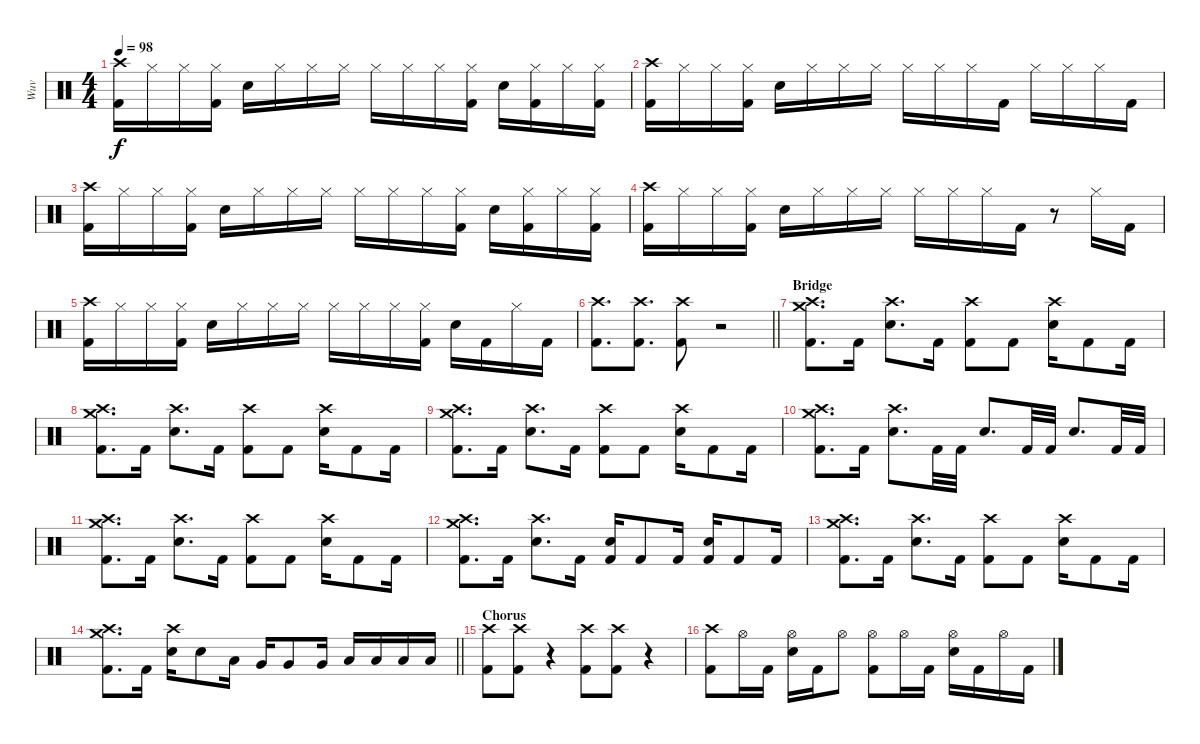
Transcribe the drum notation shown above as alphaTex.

\track ("Wuv" "Wuv") {instrument percussion}
\staff {score}
\articulation defaults
\ts (4 4)
\tempo 98
\clef neutral
\ks c
("Crash high (hit)" "Kick (hit) 2").16{dy f} "Hi-Hat (closed)".16 "Hi-Hat (closed)".16 ("Hi-Hat (closed)" "Kick (hit) 2").16 "Electric Snare (hit)".16 "Hi-Hat (closed)".16 "Hi-Hat (closed)".16 "Hi-Hat (closed)".16 "Hi-Hat (closed)".16 "Hi-Hat (closed)".16 "Hi-Hat (closed)".16 ("Hi-Hat (closed)" "Kick (hit) 2").16 "Electric Snare (hit)".16 ("Hi-Hat (closed)" "Kick (hit) 2").16 "Hi-Hat (closed)".16 ("Hi-Hat (closed)" "Kick (hit) 2").16 |
("Crash high (hit)" "Kick (hit) 2").16 "Hi-Hat (closed)".16 "Hi-Hat (closed)".16 ("Hi-Hat (closed)" "Kick (hit) 2").16 "Electric Snare (hit)".16 "Hi-Hat (closed)".16 "Hi-Hat (closed)".16 "Hi-Hat (closed)".16 "Hi-Hat (closed)".16 "Hi-Hat (closed)".16 "Hi-Hat (closed)".16 "Kick (hit) 2".16 "Hi-Hat (closed)".16 "Hi-Hat (closed)".16 "Hi-Hat (closed)".16 "Kick (hit) 2".16 |
("Crash high (hit)" "Kick (hit) 2").16 "Hi-Hat (closed)".16 "Hi-Hat (closed)".16 ("Hi-Hat (closed)" "Kick (hit) 2").16 "Electric Snare (hit)".16 "Hi-Hat (closed)".16 "Hi-Hat (closed)".16 "Hi-Hat (closed)".16 "Hi-Hat (closed)".16 "Hi-Hat (closed)".16 "Hi-Hat (closed)".16 ("Hi-Hat (closed)" "Kick (hit) 2").16 "Electric Snare (hit)".16 ("Hi-Hat (closed)" "Kick (hit) 2").16 "Hi-Hat (closed)".16 ("Hi-Hat (closed)" "Kick (hit) 2").16 |
("Crash high (hit)" "Kick (hit) 2").16 "Hi-Hat (closed)".16 "Hi-Hat (closed)".16 ("Hi-Hat (closed)" "Kick (hit) 2").16 "Electric Snare (hit)".16 "Hi-Hat (closed)".16 "Hi-Hat (closed)".16 "Hi-Hat (closed)".16 "Hi-Hat (closed)".16 "Hi-Hat (closed)".16 "Hi-Hat (closed)".16 "Kick (hit) 2".16 r.8 "Hi-Hat (closed)".16 "Kick (hit) 2".16 |
("Crash high (hit)" "Kick (hit) 2").16 "Hi-Hat (closed)".16 "Hi-Hat (closed)".16 ("Hi-Hat (closed)" "Kick (hit) 2").16 "Electric Snare (hit)".16 "Hi-Hat (closed)".16 "Hi-Hat (closed)".16 "Hi-Hat (closed)".16 "Hi-Hat (closed)".16 "Hi-Hat (closed)".16 "Hi-Hat (closed)".16 ("Hi-Hat (closed)" "Kick (hit) 2").16 "Electric Snare (hit)".16 "Kick (hit) 2".16 "Hi-Hat (closed)".16 "Kick (hit) 2".16 |
\barLineRight lightlight
("Crash high (hit)" "Kick (hit) 2").8{d} ("Crash high (hit)" "Kick (hit) 2").8{d} ("Crash high (hit)" "Kick (hit) 2").8 r.2 |
\section ("" "Bridge")
("Crash high (hit)" "Crash medium (hit)" "Kick (hit) 2").8{d} "Kick (hit) 2".16 ("Crash high (hit)" "Electric Snare (hit)").8{d} "Kick (hit) 2".16 ("Crash high (hit)" "Kick (hit) 2").8 "Kick (hit) 2".8 ("Crash high (hit)" "Electric Snare (hit)").16 "Kick (hit) 2".8 "Kick (hit) 2".16 |
("Crash high (hit)" "Crash medium (hit)" "Kick (hit) 2").8{d} "Kick (hit) 2".16 ("Crash high (hit)" "Electric Snare (hit)").8{d} "Kick (hit) 2".16 ("Crash high (hit)" "Kick (hit) 2").8 "Kick (hit) 2".8 ("Crash high (hit)" "Electric Snare (hit)").16 "Kick (hit) 2".8 "Kick (hit) 2".16 |
("Crash high (hit)" "Crash medium (hit)" "Kick (hit) 2").8{d} "Kick (hit) 2".16 ("Crash high (hit)" "Electric Snare (hit)").8{d} "Kick (hit) 2".16 ("Crash high (hit)" "Kick (hit) 2").8 "Kick (hit) 2".8 ("Crash high (hit)" "Electric Snare (hit)").16 "Kick (hit) 2".8 "Kick (hit) 2".16 |
("Crash high (hit)" "Crash medium (hit)" "Kick (hit) 2").8{d} "Kick (hit) 2".16 ("Crash high (hit)" "Electric Snare (hit)").8{d} "Kick (hit) 2".32 "Kick (hit) 2".32 "Electric Snare (hit)".8{d} "Kick (hit) 2".32 "Kick (hit) 2".32 "Electric Snare (hit)".8{d} "Kick (hit) 2".32 "Kick (hit) 2".32 |
("Crash high (hit)" "Crash medium (hit)" "Kick (hit) 2").8{d} "Kick (hit) 2".16 ("Crash high (hit)" "Electric Snare (hit)").8{d} "Kick (hit) 2".16 ("Crash high (hit)" "Kick (hit) 2").8 "Kick (hit) 2".8 ("Crash high (hit)" "Electric Snare (hit)").16 "Kick (hit) 2".8 "Kick (hit) 2".16 |
("Crash high (hit)" "Crash medium (hit)" "Kick (hit) 2").8{d} "Kick (hit) 2".16 ("Crash high (hit)" "Electric Snare (hit)").8{d} "Kick (hit) 2".16 ("Electric Snare (hit)" "Kick (hit) 2").16 "Kick (hit) 2".8 "Kick (hit) 2".16 ("Electric Snare (hit)" "Kick (hit) 2").16 "Kick (hit) 2".8 "Kick (hit) 2".16 |
("Crash high (hit)" "Crash medium (hit)" "Kick (hit) 2").8{d} "Kick (hit) 2".16 ("Crash high (hit)" "Electric Snare (hit)").8{d} "Kick (hit) 2".16 ("Crash high (hit)" "Kick (hit) 2").8 "Kick (hit) 2".8 ("Crash high (hit)" "Electric Snare (hit)").16 "Kick (hit) 2".8 "Kick (hit) 2".16 |
\barLineRight lightlight
("Crash high (hit)" "Crash medium (hit)" "Kick (hit) 2").8{d} "Kick (hit) 2".16 ("Crash high (hit)" "Electric Snare (hit)").16 "Electric Snare (hit)".8 "Low Tom (hit)".16 "Very Low Tom (hit)".16 "Very Low Tom (hit)".8 "Very Low Tom (hit)".16 "Low Floor Tom (hit)".16 "Low Floor Tom (hit)".16 "Low Floor Tom (hit)".16 "Low Floor Tom (hit)".16 |
\section ("" "Chorus")
("Crash high (hit)" "Kick (hit) 2").8 ("Crash high (hit)" "Kick (hit) 2").8 r.4{volume 0} ("Crash high (hit)" "Kick (hit) 2").8{volume 16} ("Crash high (hit)" "Kick (hit) 2").8 r.4{volume 0} |
("Crash high (hit)" "Kick (hit) 2").8{volume 16} "Hi-Hat (open)".16 "Kick (hit) 2".16 ("Hi-Hat (open)" "Electric Snare (hit)").16 "Kick (hit) 2".16 "Hi-Hat (open)".8 ("Hi-Hat (open)" "Kick (hit) 2").8 "Hi-Hat (open)".16 "Kick (hit) 2".16 ("Hi-Hat (open)" "Electric Snare (hit)").16 "Kick (hit) 2".16 "Hi-Hat (open)".16 "Kick (hit) 2".16
